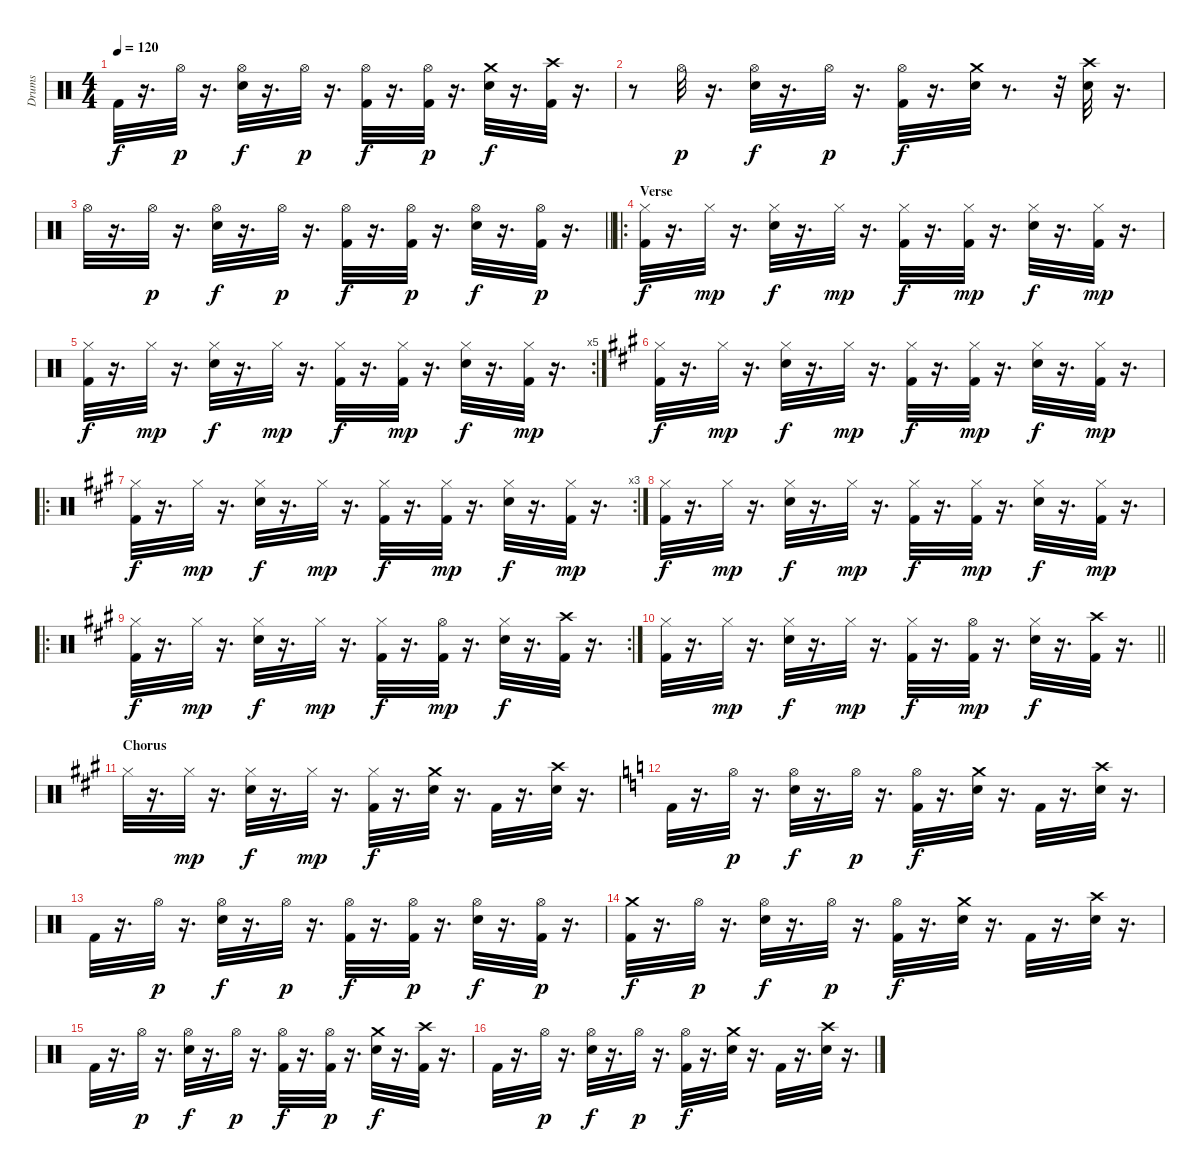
\track ("Drums" "Drums") {instrument percussion}
\staff {score}
\articulation defaults
\ts (4 4)
\tempo 120
\clef neutral
\ks c "Kick (hit) 2".32{dy f}
r.16{d} "Hi-Hat (open)".32{dy p} r.16{d} ("Hi-Hat (open)" "Electric Snare (hit)").32{dy f} r.16{d} "Hi-Hat (open)".32{dy p} r.16{d} ("Kick (hit) 2" "Hi-Hat (open)").32{dy f} r.16{d} ("Hi-Hat (open)" "Kick (hit) 2").32{dy p} r.16{d} ("Crash medium (hit)" "Electric Snare (hit)").32{dy f} r.16{d} ("Crash high (hit)" "Kick (hit) 2").32 r.16{d} |
r.8 "Hi-Hat (open)".32{dy p} r.16{d} ("Hi-Hat (open)" "Electric Snare (hit)").32{dy f} r.16{d} "Hi-Hat (open)".32{dy p} r.16{d} ("Hi-Hat (open)" "Kick (hit) 2").32{dy f} r.16{d} ("Crash medium (hit)" "Electric Snare (hit)").32 r.8{d} r.32 ("Crash high (hit)" "Electric Snare (hit)").32 r.16{d} |
\barLineRight lightlight "Hi-Hat (open)".32
r.16{d} "Hi-Hat (open)".32{dy p} r.16{d} ("Hi-Hat (open)" "Electric Snare (hit)").32{dy f} r.16{d} "Hi-Hat (open)".32{dy p} r.16{d} ("Hi-Hat (open)" "Kick (hit) 2").32{dy f} r.16{d} ("Hi-Hat (open)" "Kick (hit) 2").32{dy p} r.16{d} ("Hi-Hat (open)" "Electric Snare (hit)").32{dy f} r.16{d} ("Hi-Hat (open)" "Kick (hit) 2").32{dy p} r.16{d} |
\ro
\section ("" "Verse")
("Hi-Hat (closed)" "Kick (hit) 2").32{dy f} r.16{d} "Hi-Hat (closed)".32{dy mp} r.16{d} ("Hi-Hat (closed)" "Electric Snare (hit)").32{dy f} r.16{d} "Hi-Hat (closed)".32{dy mp} r.16{d} ("Hi-Hat (closed)" "Kick (hit) 2").32{dy f} r.16{d} ("Hi-Hat (closed)" "Kick (hit) 2").32{dy mp} r.16{d} ("Hi-Hat (closed)" "Electric Snare (hit)").32{dy f} r.16{d} ("Hi-Hat (closed)" "Kick (hit) 2").32{dy mp} r.16{d} |
\rc 5
("Hi-Hat (closed)" "Kick (hit) 2").32{dy f} r.16{d} "Hi-Hat (closed)".32{dy mp} r.16{d} ("Hi-Hat (closed)" "Electric Snare (hit)").32{dy f} r.16{d} "Hi-Hat (closed)".32{dy mp} r.16{d} ("Hi-Hat (closed)" "Kick (hit) 2").32{dy f} r.16{d} ("Hi-Hat (closed)" "Kick (hit) 2").32{dy mp} r.16{d} ("Hi-Hat (closed)" "Electric Snare (hit)").32{dy f} r.16{d} ("Hi-Hat (closed)" "Kick (hit) 2").32{dy mp} r.16{d} |
\ks a
("Hi-Hat (closed)" "Kick (hit) 2").32{dy f} r.16{d} "Hi-Hat (closed)".32{dy mp} r.16{d} ("Hi-Hat (closed)" "Electric Snare (hit)").32{dy f} r.16{d} "Hi-Hat (closed)".32{dy mp} r.16{d} ("Hi-Hat (closed)" "Kick (hit) 2").32{dy f} r.16{d} ("Hi-Hat (closed)" "Kick (hit) 2").32{dy mp} r.16{d} ("Hi-Hat (closed)" "Electric Snare (hit)").32{dy f} r.16{d} ("Hi-Hat (closed)" "Kick (hit) 2").32{dy mp} r.16{d} |
\ro
\rc 3
("Hi-Hat (closed)" "Kick (hit) 2").32{dy f} r.16{d} "Hi-Hat (closed)".32{dy mp} r.16{d} ("Hi-Hat (closed)" "Electric Snare (hit)").32{dy f} r.16{d} "Hi-Hat (closed)".32{dy mp} r.16{d} ("Hi-Hat (closed)" "Kick (hit) 2").32{dy f} r.16{d} ("Hi-Hat (closed)" "Kick (hit) 2").32{dy mp} r.16{d} ("Hi-Hat (closed)" "Electric Snare (hit)").32{dy f} r.16{d} ("Hi-Hat (closed)" "Kick (hit) 2").32{dy mp} r.16{d} |
("Hi-Hat (closed)" "Kick (hit) 2").32{dy f} r.16{d} "Hi-Hat (closed)".32{dy mp} r.16{d} ("Hi-Hat (closed)" "Electric Snare (hit)").32{dy f} r.16{d} "Hi-Hat (closed)".32{dy mp} r.16{d} ("Hi-Hat (closed)" "Kick (hit) 2").32{dy f} r.16{d} ("Hi-Hat (closed)" "Kick (hit) 2").32{dy mp} r.16{d} ("Hi-Hat (closed)" "Electric Snare (hit)").32{dy f} r.16{d} ("Hi-Hat (closed)" "Kick (hit) 2").32{dy mp} r.16{d} |
\ro
\rc 2
("Hi-Hat (closed)" "Kick (hit) 2").32{dy f} r.16{d} "Hi-Hat (closed)".32{dy mp} r.16{d} ("Hi-Hat (closed)" "Electric Snare (hit)").32{dy f} r.16{d} "Hi-Hat (closed)".32{dy mp} r.16{d} ("Hi-Hat (closed)" "Kick (hit) 2").32{dy f} r.16{d} ("Hi-Hat (open)" "Kick (hit) 2").32{dy mp} r.16{d} ("Hi-Hat (closed)" "Electric Snare (hit)").32{dy f} r.16{d} ("Crash high (hit)" "Kick (hit) 2").32 r.16{d} |
\barLineRight lightlight
("Hi-Hat (closed)" "Kick (hit) 2").32 r.16{d} "Hi-Hat (closed)".32{dy mp} r.16{d} ("Hi-Hat (closed)" "Electric Snare (hit)").32{dy f} r.16{d} "Hi-Hat (closed)".32{dy mp} r.16{d} ("Hi-Hat (closed)" "Kick (hit) 2").32{dy f} r.16{d} ("Hi-Hat (open)" "Kick (hit) 2").32{dy mp} r.16{d} ("Hi-Hat (closed)" "Electric Snare (hit)").32{dy f} r.16{d} ("Crash high (hit)" "Kick (hit) 2").32 r.16{d} |
\section ("" "Chorus")
"Hi-Hat (closed)".32 r.16{d} "Hi-Hat (closed)".32{dy mp} r.16{d} ("Hi-Hat (closed)" "Electric Snare (hit)").32{dy f} r.16{d} "Hi-Hat (closed)".32{dy mp} r.16{d} ("Hi-Hat (closed)" "Kick (hit) 2").32{dy f} r.16{d} ("Crash medium (hit)" "Electric Snare (hit)").32 r.16{d} "Kick (hit) 2".32 r.16{d} ("Crash high (hit)" "Electric Snare (hit)").32 r.16{d} |
\ks c "Kick (hit) 2".32
r.16{d} "Hi-Hat (open)".32{dy p} r.16{d} ("Hi-Hat (open)" "Electric Snare (hit)").32{dy f} r.16{d} "Hi-Hat (open)".32{dy p} r.16{d} ("Hi-Hat (open)" "Kick (hit) 2").32{dy f} r.16{d} ("Crash medium (hit)" "Electric Snare (hit)").32 r.16{d} "Kick (hit) 2".32 r.16{d} ("Crash high (hit)" "Electric Snare (hit)").32 r.16{d} |
"Kick (hit) 2".32 r.16{d} "Hi-Hat (open)".32{dy p} r.16{d} ("Hi-Hat (open)" "Electric Snare (hit)").32{dy f} r.16{d} "Hi-Hat (open)".32{dy p} r.16{d} ("Hi-Hat (open)" "Kick (hit) 2").32{dy f} r.16{d} ("Hi-Hat (open)" "Kick (hit) 2").32{dy p} r.16{d} ("Hi-Hat (open)" "Electric Snare (hit)").32{dy f} r.16{d} ("Hi-Hat (open)" "Kick (hit) 2").32{dy p} r.16{d} |
("Crash medium (hit)" "Kick (hit) 2").32{dy f} r.16{d} "Hi-Hat (open)".32{dy p} r.16{d} ("Hi-Hat (open)" "Electric Snare (hit)").32{dy f} r.16{d} "Hi-Hat (open)".32{dy p} r.16{d} ("Hi-Hat (open)" "Kick (hit) 2").32{dy f} r.16{d} ("Crash medium (hit)" "Electric Snare (hit)").32 r.16{d} "Kick (hit) 2".32 r.16{d} ("Crash high (hit)" "Electric Snare (hit)").32 r.16{d} |
"Kick (hit) 2".32 r.16{d} "Hi-Hat (open)".32{dy p} r.16{d} ("Hi-Hat (open)" "Electric Snare (hit)").32{dy f} r.16{d} "Hi-Hat (open)".32{dy p} r.16{d} ("Kick (hit) 2" "Hi-Hat (open)").32{dy f} r.16{d} ("Hi-Hat (open)" "Kick (hit) 2").32{dy p} r.16{d} ("Crash medium (hit)" "Electric Snare (hit)").32{dy f} r.16{d} ("Crash high (hit)" "Kick (hit) 2").32 r.16{d} |
"Kick (hit) 2".32 r.16{d} "Hi-Hat (open)".32{dy p} r.16{d} ("Hi-Hat (open)" "Electric Snare (hit)").32{dy f} r.16{d} "Hi-Hat (open)".32{dy p} r.16{d} ("Hi-Hat (open)" "Kick (hit) 2").32{dy f} r.16{d} ("Crash medium (hit)" "Electric Snare (hit)").32 r.16{d} "Kick (hit) 2".32 r.16{d} ("Crash high (hit)" "Electric Snare (hit)").32 r.16{d}
